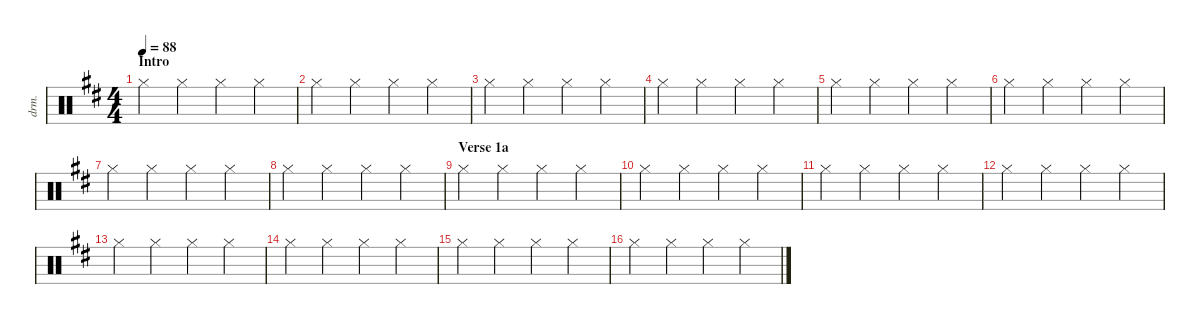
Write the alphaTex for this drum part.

\defaultSystemsLayout 4
\hideDynamics
\bracketExtendMode nobrackets
\otherSystemsTrackNameOrientation horizontal
\track ("Drumkit" "drm.") {instrument percussion}
\staff {score}
\articulation defaults
\ts (4 4)
\section ("" "Intro")
\tempo 88
\clef neutral
\ks d "Hi-Hat (closed)"{acc forcenatural}.4{dy mf} "Hi-Hat (closed)"{acc forcenatural}.4 "Hi-Hat (closed)"{acc forcenatural}.4 "Hi-Hat (closed)"{acc forcenatural}.4
|
"Hi-Hat (closed)"{acc forcenatural}.4 "Hi-Hat (closed)"{acc forcenatural}.4 "Hi-Hat (closed)"{acc forcenatural}.4 "Hi-Hat (closed)"{acc forcenatural}.4 |
"Hi-Hat (closed)"{acc forcenatural}.4 "Hi-Hat (closed)"{acc forcenatural}.4 "Hi-Hat (closed)"{acc forcenatural}.4 "Hi-Hat (closed)"{acc forcenatural}.4 |
"Hi-Hat (closed)"{acc forcenatural}.4 "Hi-Hat (closed)"{acc forcenatural}.4 "Hi-Hat (closed)"{acc forcenatural}.4 "Hi-Hat (closed)"{acc forcenatural}.4 |
"Hi-Hat (closed)"{acc forcenatural}.4 "Hi-Hat (closed)"{acc forcenatural}.4 "Hi-Hat (closed)"{acc forcenatural}.4 "Hi-Hat (closed)"{acc forcenatural}.4 |
"Hi-Hat (closed)"{acc forcenatural}.4 "Hi-Hat (closed)"{acc forcenatural}.4 "Hi-Hat (closed)"{acc forcenatural}.4 "Hi-Hat (closed)"{acc forcenatural}.4 |
"Hi-Hat (closed)"{acc forcenatural}.4 "Hi-Hat (closed)"{acc forcenatural}.4 "Hi-Hat (closed)"{acc forcenatural}.4 "Hi-Hat (closed)"{acc forcenatural}.4 |
"Hi-Hat (closed)"{acc forcenatural}.4 "Hi-Hat (closed)"{acc forcenatural}.4 "Hi-Hat (closed)"{acc forcenatural}.4 "Hi-Hat (closed)"{acc forcenatural}.4 |
\section ("" "Verse 1a")
"Hi-Hat (closed)"{acc forcenatural}.4 "Hi-Hat (closed)"{acc forcenatural}.4 "Hi-Hat (closed)"{acc forcenatural}.4 "Hi-Hat (closed)"{acc forcenatural}.4 |
"Hi-Hat (closed)"{acc forcenatural}.4 "Hi-Hat (closed)"{acc forcenatural}.4 "Hi-Hat (closed)"{acc forcenatural}.4 "Hi-Hat (closed)"{acc forcenatural}.4 |
"Hi-Hat (closed)"{acc forcenatural}.4 "Hi-Hat (closed)"{acc forcenatural}.4 "Hi-Hat (closed)"{acc forcenatural}.4 "Hi-Hat (closed)"{acc forcenatural}.4 |
"Hi-Hat (closed)"{acc forcenatural}.4 "Hi-Hat (closed)"{acc forcenatural}.4 "Hi-Hat (closed)"{acc forcenatural}.4 "Hi-Hat (closed)"{acc forcenatural}.4 |
"Hi-Hat (closed)"{acc forcenatural}.4 "Hi-Hat (closed)"{acc forcenatural}.4 "Hi-Hat (closed)"{acc forcenatural}.4 "Hi-Hat (closed)"{acc forcenatural}.4 |
"Hi-Hat (closed)"{acc forcenatural}.4 "Hi-Hat (closed)"{acc forcenatural}.4 "Hi-Hat (closed)"{acc forcenatural}.4 "Hi-Hat (closed)"{acc forcenatural}.4 |
"Hi-Hat (closed)"{acc forcenatural}.4 "Hi-Hat (closed)"{acc forcenatural}.4 "Hi-Hat (closed)"{acc forcenatural}.4 "Hi-Hat (closed)"{acc forcenatural}.4 |
"Hi-Hat (closed)"{acc forcenatural}.4 "Hi-Hat (closed)"{acc forcenatural}.4 "Hi-Hat (closed)"{acc forcenatural}.4 "Hi-Hat (closed)"{acc forcenatural}.4
